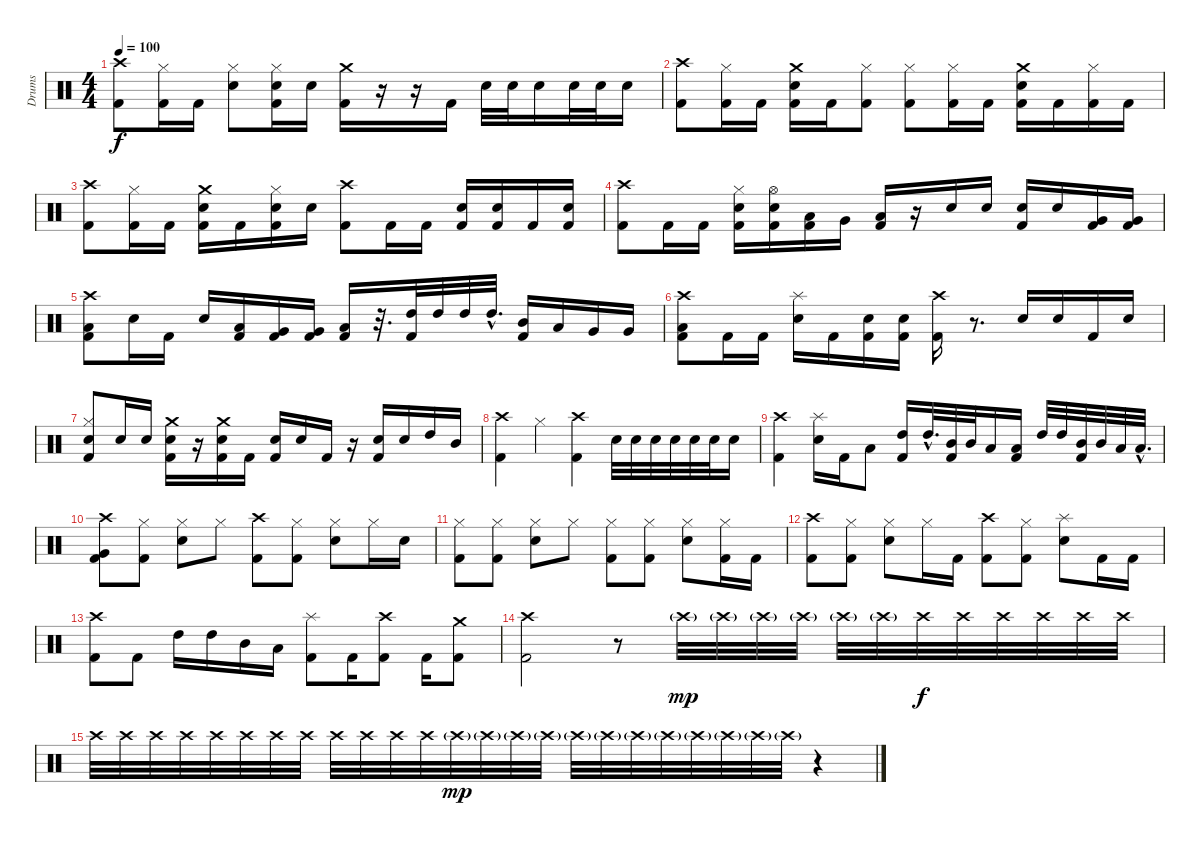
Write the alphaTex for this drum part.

\track ("Drums" "Drums") {instrument percussion}
\staff {score}
\articulation defaults
\ts (4 4)
\tempo 100
\clef neutral
\ks c
("Crash high (hit)" "Kick (hit) 2").8{dy f} ("Hi-Hat (closed)" "Kick (hit) 2").16 "Kick (hit) 2".16 ("Hi-Hat (closed)" "Snare (hit) 2").8 ("Hi-Hat (closed)" "Snare (hit) 2" "Kick (hit) 2").16 "Snare (hit) 2".16 ("Crash medium (hit)" "Kick (hit) 2").16 r.16 r.16 "Kick (hit) 2".16 "Snare (hit) 2".32 "Snare (hit) 2".32 "Snare (hit) 2".16 "Snare (hit) 2".32 "Snare (hit) 2".32 "Snare (hit) 2".16 |
("Crash high (hit)" "Kick (hit) 2").8 ("Hi-Hat (closed)" "Kick (hit) 2").16 "Kick (hit) 2".16 ("Crash medium (hit)" "Snare (hit) 2" "Kick (hit) 2").16 "Kick (hit) 2".16 ("Hi-Hat (closed)" "Kick (hit) 2").8 ("Hi-Hat (closed)" "Kick (hit) 2").8 ("Hi-Hat (closed)" "Kick (hit) 2").16 "Kick (hit) 2".16 ("Crash medium (hit)" "Snare (hit) 2" "Kick (hit) 2").16 "Kick (hit) 2".16 ("Hi-Hat (closed)" "Kick (hit) 2").16 "Kick (hit) 2".16 |
("Crash high (hit)" "Kick (hit) 2").8 ("Hi-Hat (closed)" "Kick (hit) 2").16 "Kick (hit) 2".16 ("Crash medium (hit)" "Snare (hit) 2" "Kick (hit) 2").16 "Kick (hit) 2".16 ("Hi-Hat (closed)" "Snare (hit) 2" "Kick (hit) 2").16 "Snare (hit) 2".16 ("Crash high (hit)" "Kick (hit) 2").8 "Kick (hit) 2".16 "Kick (hit) 2".16 ("Snare (hit) 2" "Kick (hit) 2").16 ("Snare (hit) 2" "Kick (hit) 2").16 "Kick (hit) 2".16 ("Snare (hit) 2" "Kick (hit) 2").16 |
("Crash high (hit)" "Kick (hit) 2").8 "Kick (hit) 2".16 "Kick (hit) 2".16 ("Hi-Hat (closed)" "Snare (hit) 2" "Kick (hit) 2").16 ("Hi-Hat (open)" "Snare (hit) 2" "Kick (hit) 2").16 ("Low Tom (hit)" "Kick (hit) 2").16 "Very Low Tom (hit)".16 ("Low Floor Tom (hit)" "Kick (hit) 2").16 r.16 "Snare (hit) 2".16 "Snare (hit) 2".16 ("Snare (hit) 2" "Kick (hit) 2").16 "Snare (hit) 2".16 ("Very Low Tom (hit)" "Kick (hit) 2").16 ("Very Low Tom (hit)" "Kick (hit) 2").16 |
("Crash high (hit)" "Low Floor Tom (hit)" "Kick (hit) 2").8 "Snare (hit) 2".16 "Kick (hit) 2".16 "Snare (hit) 2".16 ("Low Tom (hit)" "Kick (hit) 2").16 ("Very Low Tom (hit)" "Kick (hit) 2").16 ("Very Low Tom (hit)" "Kick (hit) 2").16 ("Low Floor Tom (hit)" "Kick (hit) 2").16 r.32{d} ("High Tom (hit)" "Kick (hit) 2").32 "High Tom (hit)".32 "High Tom (hit)".32 "High Tom (hit)"{hac}.32{d} ("Mid Tom (hit)" "Kick (hit) 2").16 "Low Tom (hit)".16 "Very Low Tom (hit)".16 "Very Low Tom (hit)".16 |
("Crash high (hit)" "Low Floor Tom (hit)" "Kick (hit) 2").8 "Kick (hit) 2".16 "Kick (hit) 2".16 ("Splash (hit)" "Snare (hit) 2").16 "Kick (hit) 2".16 ("Snare (hit) 2" "Kick (hit) 2").16 ("Snare (hit) 2" "Kick (hit) 2").16 ("Crash high (hit)" "Kick (hit) 2").16 r.8{d} "Snare (hit) 2".16 "Snare (hit) 2".16 "Kick (hit) 2".16 "Snare (hit) 2".16 |
("Hi-Hat (closed)" "Snare (hit) 2" "Kick (hit) 2").8 "Snare (hit) 2".16 "Snare (hit) 2".16 ("Crash medium (hit)" "Snare (hit) 2" "Kick (hit) 2").16 r.16 ("Crash medium (hit)" "Snare (hit) 2" "Kick (hit) 2").16 "Kick (hit) 2".16 ("Snare (hit) 2" "Kick (hit) 2").16 "Snare (hit) 2".16 "Kick (hit) 2".16 r.16 ("Snare (hit) 2" "Kick (hit) 2").16 "Snare (hit) 2".16 "High Tom (hit)".16 "Mid Tom (hit)".16 |
("Crash high (hit)" "Kick (hit) 2").4 "Hi-Hat (closed)".4 ("Crash high (hit)" "Kick (hit) 2").4 "Snare (hit) 2".32 "Snare (hit) 2".32 "Snare (hit) 2".32 "Snare (hit) 2".32 "Snare (hit) 2".32 "Snare (hit) 2".32 "Snare (hit) 2".16 |
("Crash high (hit)" "Kick (hit) 2").4 ("Splash (hit)" "Snare (hit) 2").16 "Kick (hit) 2".16 "Low Tom (hit)".8 ("High Tom (hit)" "Kick (hit) 2").16 "High Tom (hit)"{hac}.32{d} ("Mid Tom (hit)" "Kick (hit) 2").32 "Mid Tom (hit)".32 "Low Tom (hit)".16 ("Low Tom (hit)" "Kick (hit) 2").16 "High Tom (hit)".32 "High Tom (hit)".32 ("Mid Tom (hit)" "Kick (hit) 2").32 "Mid Tom (hit)".32 "Low Tom (hit)".32 "Low Tom (hit)"{hac}.32{d} |
\section ("" "")
("Crash high (hit)" "Very Low Tom (hit)" "Kick (hit) 2").8 ("Hi-Hat (closed)" "Kick (hit) 2").8 ("Hi-Hat (closed)" "Snare (hit) 2").8 "Hi-Hat (closed)".8 ("Crash high (hit)" "Kick (hit) 2").8 ("Hi-Hat (closed)" "Kick (hit) 2").8 ("Hi-Hat (closed)" "Snare (hit) 2").8 "Hi-Hat (closed)".16 "Snare (hit) 2".16 |
("Hi-Hat (closed)" "Kick (hit) 2").8 ("Hi-Hat (closed)" "Kick (hit) 2").8 ("Hi-Hat (closed)" "Snare (hit) 2").8 "Hi-Hat (closed)".8 ("Hi-Hat (closed)" "Kick (hit) 2").8 ("Hi-Hat (closed)" "Kick (hit) 2").8 ("Hi-Hat (closed)" "Snare (hit) 2").8 ("Hi-Hat (closed)" "Kick (hit) 2").16 "Kick (hit) 2".16 |
("Crash high (hit)" "Kick (hit) 2").8 ("Hi-Hat (closed)" "Kick (hit) 2").8 ("Hi-Hat (closed)" "Snare (hit) 2").8 "Hi-Hat (closed)".16 "Kick (hit) 2".16 ("Crash high (hit)" "Kick (hit) 2").8 ("Hi-Hat (closed)" "Kick (hit) 2").8 ("Splash (hit)" "Snare (hit) 2").8 "Kick (hit) 2".16 "Kick (hit) 2".16 |
("Crash high (hit)" "Kick (hit) 2").8 "Kick (hit) 2".8 "High Tom (hit)".16 "High Tom (hit)".16 "Mid Tom (hit)".16 "Low Tom (hit)".16 ("Splash (hit)" "Kick (hit) 2").8 "Kick (hit) 2".16 ("Crash high (hit)" "Kick (hit) 2").8 "Kick (hit) 2".16 ("Crash medium (hit)" "Kick (hit) 2").8 |
("Crash high (hit)" "Kick (hit) 2").2 r.8 "Crash high (hit)"{g}.32{dy mp} "Crash high (hit)"{g}.32 "Crash high (hit)"{g}.32 "Crash high (hit)"{g}.32 "Crash high (hit)"{g}.32 "Crash high (hit)"{g}.32 "Crash high (hit)".32{dy f} "Crash high (hit)".32 "Crash high (hit)".32 "Crash high (hit)".32 "Crash high (hit)".32 "Crash high (hit)".32 |
"Crash high (hit)".32 "Crash high (hit)".32 "Crash high (hit)".32 "Crash high (hit)".32 "Crash high (hit)".32 "Crash high (hit)".32 "Crash high (hit)".32 "Crash high (hit)".32 "Crash high (hit)".32 "Crash high (hit)".32 "Crash high (hit)".32 "Crash high (hit)".32 "Crash high (hit)"{g}.32{dy mp} "Crash high (hit)"{g}.32 "Crash high (hit)"{g}.32 "Crash high (hit)"{g}.32 "Crash high (hit)"{g}.32 "Crash high (hit)"{g}.32 "Crash high (hit)"{g}.32 "Crash high (hit)"{g}.32 "Crash high (hit)"{g}.32 "Crash high (hit)"{g}.32 "Crash high (hit)"{g}.32 "Crash high (hit)"{g}.32 r.4
